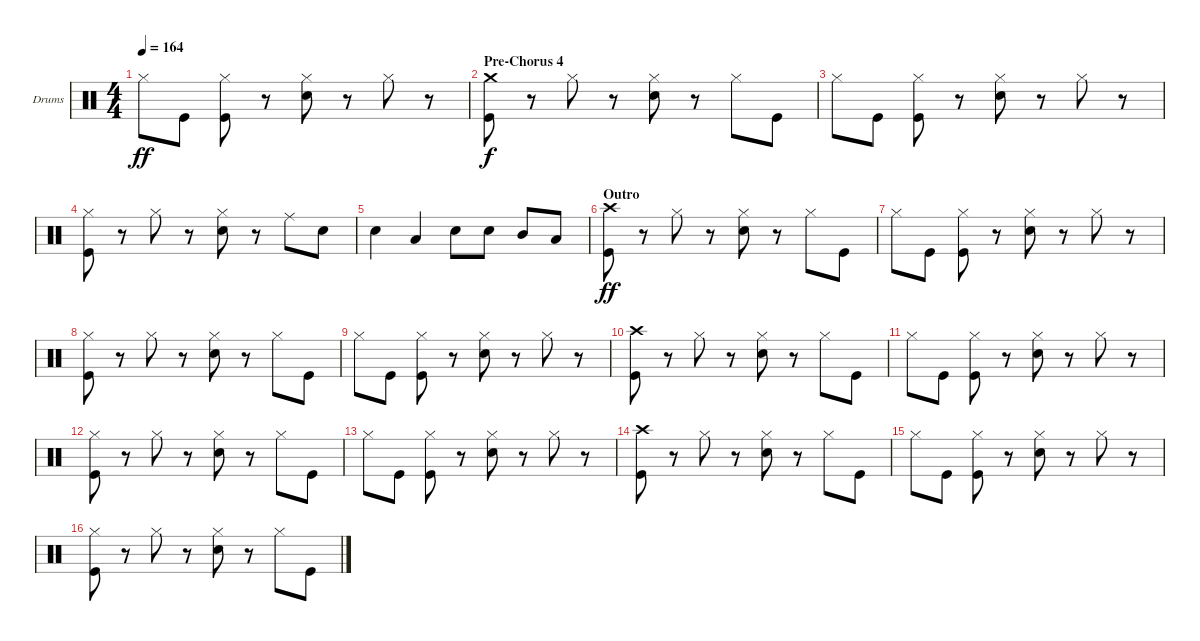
\defaultSystemsLayout 4
\bracketExtendMode groupsimilarinstruments
\firstSystemTrackNameOrientation horizontal
\otherSystemsTrackNameOrientation horizontal
\track ("Drumkit" "Drums") {instrument percussion}
\staff {score}
\articulation defaults
\ts (4 4)
\tempo 164
\clef neutral
\ks c "Hi-Hat (closed)".8{dy ff} "Kick (hit)".8
("Hi-Hat (closed)" "Kick (hit)").8 r.8 ("Hi-Hat (closed)" "Snare (hit) 2").8 r.8 "Hi-Hat (closed)".8 r.8 |
\section ("" "Pre-Chorus 4")
("Kick (hit)" "Crash medium (hit)").8{dy f} r.8 "Hi-Hat (closed)".8 r.8 ("Hi-Hat (closed)" "Snare (hit) 2").8 r.8 "Hi-Hat (closed)".8 "Kick (hit)".8 |
"Hi-Hat (closed)".8 "Kick (hit)".8 ("Hi-Hat (closed)" "Kick (hit)").8 r.8 ("Snare (hit) 2" "Hi-Hat (closed)").8 r.8 "Hi-Hat (closed)".8 r.8 |
("Kick (hit)" "Hi-Hat (closed)").8 r.8 "Hi-Hat (closed)".8 r.8 ("Hi-Hat (closed)" "Snare (hit) 2").8 r.8 "Ride (middle)".8 "Snare (hit) 2".8 |
"Snare (hit) 2".4 "Low Tom (hit)".4 "Snare (hit) 2".8 "Snare (hit) 2".8 "Mid Tom (hit)".8 "Low Tom (hit)".8 |
\section ("" "Outro")
("Kick (hit)" "Crash high (hit)").8{dy ff} r.8 "Hi-Hat (closed)".8 r.8 ("Hi-Hat (closed)" "Snare (hit) 2").8 r.8 "Hi-Hat (closed)".8 "Kick (hit)".8 |
"Hi-Hat (closed)".8 "Kick (hit)".8 ("Hi-Hat (closed)" "Kick (hit)").8 r.8 ("Hi-Hat (closed)" "Snare (hit) 2").8 r.8 "Hi-Hat (closed)".8 r.8 |
("Kick (hit)" "Hi-Hat (closed)").8 r.8 "Hi-Hat (closed)".8 r.8 ("Hi-Hat (closed)" "Snare (hit) 2").8 r.8 "Hi-Hat (closed)".8 "Kick (hit)".8 |
"Hi-Hat (closed)".8 "Kick (hit)".8 ("Hi-Hat (closed)" "Kick (hit)").8 r.8 ("Hi-Hat (closed)" "Snare (hit) 2").8 r.8 "Hi-Hat (closed)".8 r.8 |
("Kick (hit)" "Crash high (hit)").8 r.8 "Hi-Hat (closed)".8 r.8 ("Hi-Hat (closed)" "Snare (hit) 2").8 r.8 "Hi-Hat (closed)".8 "Kick (hit)".8 |
"Hi-Hat (closed)".8 "Kick (hit)".8 ("Hi-Hat (closed)" "Kick (hit)").8 r.8 ("Hi-Hat (closed)" "Snare (hit) 2").8 r.8 "Hi-Hat (closed)".8 r.8 |
("Kick (hit)" "Hi-Hat (closed)").8 r.8 "Hi-Hat (closed)".8 r.8 ("Hi-Hat (closed)" "Snare (hit) 2").8 r.8 "Hi-Hat (closed)".8 "Kick (hit)".8 |
"Hi-Hat (closed)".8 "Kick (hit)".8 ("Hi-Hat (closed)" "Kick (hit)").8 r.8 ("Hi-Hat (closed)" "Snare (hit) 2").8 r.8 "Hi-Hat (closed)".8 r.8 |
("Kick (hit)" "Crash high (hit)").8 r.8 "Hi-Hat (closed)".8 r.8 ("Hi-Hat (closed)" "Snare (hit) 2").8 r.8 "Hi-Hat (closed)".8 "Kick (hit)".8 |
"Hi-Hat (closed)".8 "Kick (hit)".8 ("Hi-Hat (closed)" "Kick (hit)").8 r.8 ("Hi-Hat (closed)" "Snare (hit) 2").8 r.8 "Hi-Hat (closed)".8 r.8 |
("Kick (hit)" "Hi-Hat (closed)").8 r.8 "Hi-Hat (closed)".8 r.8 ("Hi-Hat (closed)" "Snare (hit) 2").8 r.8 "Hi-Hat (closed)".8 "Kick (hit)".8
